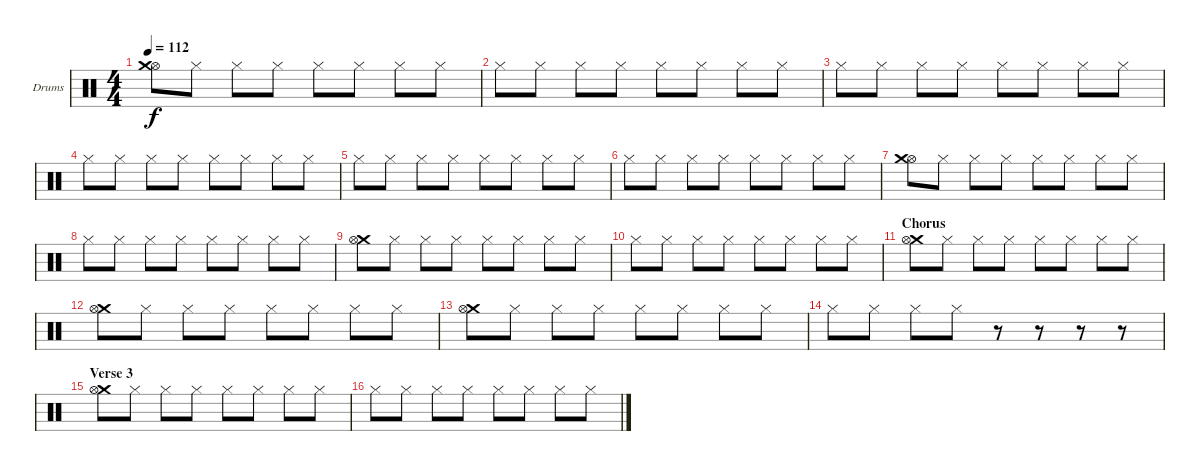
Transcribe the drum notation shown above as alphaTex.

\bracketExtendMode groupsimilarinstruments
\firstSystemTrackNameOrientation horizontal
\otherSystemsTrackNameOrientation horizontal
\track ("Drumkit" "Drums") {instrument percussion}
\staff {score}
\articulation defaults
\ts (4 4)
\tempo 112
\clef neutral
\ks c
("Hi-Hat (open)" "Crash medium (hit)").8{dy f} "Hi-Hat (closed)".8 "Hi-Hat (closed)".8 "Hi-Hat (closed)".8 "Hi-Hat (closed)".8 "Hi-Hat (closed)".8 "Hi-Hat (closed)".8 "Hi-Hat (closed)".8 |
"Hi-Hat (closed)".8 "Hi-Hat (closed)".8 "Hi-Hat (closed)".8 "Hi-Hat (closed)".8 "Hi-Hat (closed)".8 "Hi-Hat (closed)".8 "Hi-Hat (closed)".8 "Hi-Hat (closed)".8 |
"Hi-Hat (closed)".8 "Hi-Hat (closed)".8 "Hi-Hat (closed)".8 "Hi-Hat (closed)".8 "Hi-Hat (closed)".8 "Hi-Hat (closed)".8 "Hi-Hat (closed)".8 "Hi-Hat (closed)".8 |
"Hi-Hat (closed)".8 "Hi-Hat (closed)".8 "Hi-Hat (closed)".8 "Hi-Hat (closed)".8 "Hi-Hat (closed)".8 "Hi-Hat (closed)".8 "Hi-Hat (closed)".8 "Hi-Hat (closed)".8 |
"Hi-Hat (closed)".8 "Hi-Hat (closed)".8 "Hi-Hat (closed)".8 "Hi-Hat (closed)".8 "Hi-Hat (closed)".8 "Hi-Hat (closed)".8 "Hi-Hat (closed)".8 "Hi-Hat (closed)".8 |
"Hi-Hat (closed)".8 "Hi-Hat (closed)".8 "Hi-Hat (closed)".8 "Hi-Hat (closed)".8 "Hi-Hat (closed)".8 "Hi-Hat (closed)".8 "Hi-Hat (closed)".8 "Hi-Hat (closed)".8 |
("Hi-Hat (open)" "Crash medium (hit)").8 "Hi-Hat (closed)".8 "Hi-Hat (closed)".8 "Hi-Hat (closed)".8 "Hi-Hat (closed)".8 "Hi-Hat (closed)".8 "Hi-Hat (closed)".8 "Hi-Hat (closed)".8 |
"Hi-Hat (closed)".8 "Hi-Hat (closed)".8 "Hi-Hat (closed)".8 "Hi-Hat (closed)".8 "Hi-Hat (closed)".8 "Hi-Hat (closed)".8 "Hi-Hat (closed)".8 "Hi-Hat (closed)".8 |
("Crash medium (hit)" "Hi-Hat (open)").8 "Hi-Hat (closed)".8 "Hi-Hat (closed)".8 "Hi-Hat (closed)".8 "Hi-Hat (closed)".8 "Hi-Hat (closed)".8 "Hi-Hat (closed)".8 "Hi-Hat (closed)".8 |
"Hi-Hat (closed)".8 "Hi-Hat (closed)".8 "Hi-Hat (closed)".8 "Hi-Hat (closed)".8 "Hi-Hat (closed)".8 "Hi-Hat (closed)".8 "Hi-Hat (closed)".8 "Hi-Hat (closed)".8 |
\section ("" "Chorus")
("Crash medium (hit)" "Hi-Hat (open)").8 "Hi-Hat (closed)".8 "Hi-Hat (closed)".8 "Hi-Hat (closed)".8 "Hi-Hat (closed)".8 "Hi-Hat (closed)".8 "Hi-Hat (closed)".8 "Hi-Hat (closed)".8 |
("Crash medium (hit)" "Hi-Hat (open)").8 "Hi-Hat (closed)".8 "Hi-Hat (closed)".8 "Hi-Hat (closed)".8 "Hi-Hat (closed)".8 "Hi-Hat (closed)".8 "Hi-Hat (closed)".8 "Hi-Hat (closed)".8 |
("Crash medium (hit)" "Hi-Hat (open)").8 "Hi-Hat (closed)".8 "Hi-Hat (closed)".8 "Hi-Hat (closed)".8 "Hi-Hat (closed)".8 "Hi-Hat (closed)".8 "Hi-Hat (closed)".8 "Hi-Hat (closed)".8 |
"Hi-Hat (closed)".8 "Hi-Hat (closed)".8 "Hi-Hat (closed)".8 "Hi-Hat (closed)".8 r.8 r.8 r.8 r.8 |
\section ("" "Verse 3")
("Crash medium (hit)" "Hi-Hat (open)").8 "Hi-Hat (closed)".8 "Hi-Hat (closed)".8 "Hi-Hat (closed)".8 "Hi-Hat (closed)".8 "Hi-Hat (closed)".8 "Hi-Hat (closed)".8 "Hi-Hat (closed)".8 |
"Hi-Hat (closed)".8 "Hi-Hat (closed)".8 "Hi-Hat (closed)".8 "Hi-Hat (closed)".8 "Hi-Hat (closed)".8 "Hi-Hat (closed)".8 "Hi-Hat (closed)".8 "Hi-Hat (closed)".8
